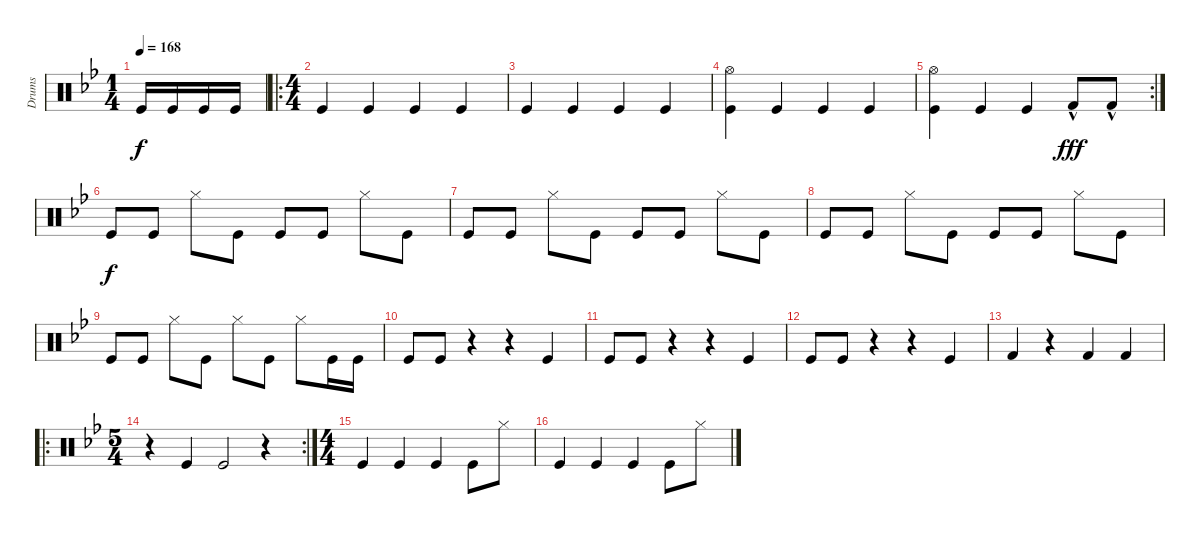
\track ("Drums" "Drums") {instrument percussion}
\staff {score}
\articulation defaults
\ts (1 4)
\tempo 168
\clef neutral
\ks bb "Kick (hit)".16{dy f} "Kick (hit)".16 "Kick (hit)".16 "Kick (hit)".16
|
\ro
\ts (4 4)
"Kick (hit)".4 "Kick (hit)".4 "Kick (hit)".4 "Kick (hit)".4 |
"Kick (hit)".4 "Kick (hit)".4 "Kick (hit)".4 "Kick (hit)".4 |
("Hi-Hat (open)" "Kick (hit)").4 "Kick (hit)".4 "Kick (hit)".4 "Kick (hit)".4 |
\rc 2
("Hi-Hat (open)" "Kick (hit)").4 "Kick (hit)".4 "Kick (hit)".4 "Kick (hit) 2"{hac}.8{dy fff} "Kick (hit) 2"{hac}.8 |
"Kick (hit)".8{dy f} "Kick (hit)".8 "Hi-Hat (closed)".8 "Kick (hit)".8 "Kick (hit)".8 "Kick (hit)".8 "Hi-Hat (closed)".8 "Kick (hit)".8 |
"Kick (hit)".8 "Kick (hit)".8 "Hi-Hat (closed)".8 "Kick (hit)".8 "Kick (hit)".8 "Kick (hit)".8 "Hi-Hat (closed)".8 "Kick (hit)".8 |
"Kick (hit)".8 "Kick (hit)".8 "Hi-Hat (closed)".8 "Kick (hit)".8 "Kick (hit)".8 "Kick (hit)".8 "Hi-Hat (closed)".8 "Kick (hit)".8 |
"Kick (hit)".8 "Kick (hit)".8 "Hi-Hat (closed)".8 "Kick (hit)".8 "Hi-Hat (closed)".8 "Kick (hit)".8 "Hi-Hat (closed)".8 "Kick (hit)".16 "Kick (hit)".16 |
"Kick (hit)".8 "Kick (hit)".8 r.4 r.4 "Kick (hit)".4 |
"Kick (hit)".8 "Kick (hit)".8 r.4 r.4 "Kick (hit)".4 |
"Kick (hit)".8 "Kick (hit)".8 r.4 r.4 "Kick (hit)".4 |
"Kick (hit) 2".4 r.4 "Kick (hit) 2".4 "Kick (hit) 2".4 |
\ro
\rc 2
\ts (5 4)
r.4 "Kick (hit)".4 "Kick (hit)".2 r.4 |
\ts (4 4)
"Kick (hit)".4 "Kick (hit)".4 "Kick (hit)".4 "Kick (hit)".8 "Hi-Hat (closed)".8 |
"Kick (hit)".4 "Kick (hit)".4 "Kick (hit)".4 "Kick (hit)".8 "Hi-Hat (closed)".8
